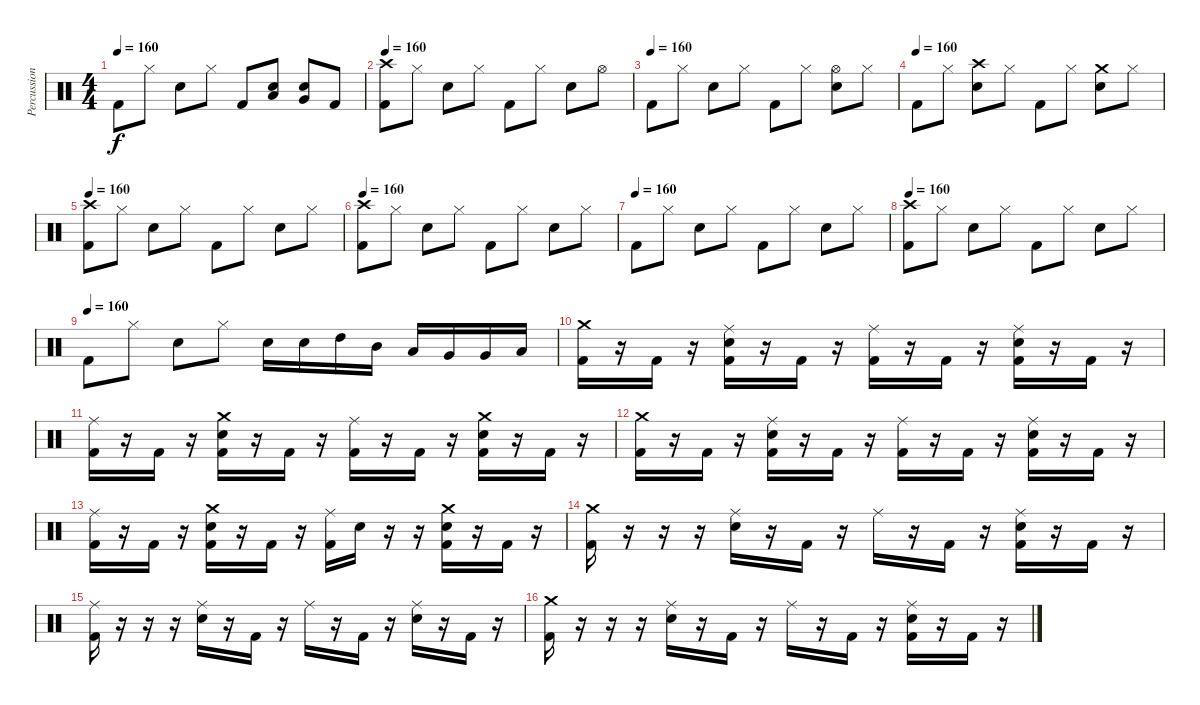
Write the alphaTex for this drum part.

\track ("Percussion" "Percussion") {instrument percussion}
\staff {score}
\articulation defaults
\ts (4 4)
\tempo 160
\clef neutral
\ks c "Kick (hit) 2".8{dy f} "Hi-Hat (closed)".8 "Snare (hit) 2".8 "Hi-Hat (closed)".8 "Kick (hit) 2".8
("Low Tom (hit)" "Snare (hit) 2").8 ("Very Low Tom (hit)" "Snare (hit) 2").8 "Kick (hit) 2".8 |
\tempo 160
("Crash high (hit)" "Kick (hit) 2").8 "Hi-Hat (closed)".8 "Snare (hit) 2".8 "Hi-Hat (closed)".8 "Kick (hit) 2".8 "Hi-Hat (closed)".8 "Snare (hit) 2".8 "Hi-Hat (open)".8 |
\tempo (160)
"Kick (hit) 2".8 "Hi-Hat (closed)".8 "Snare (hit) 2".8 "Hi-Hat (closed)".8 "Kick (hit) 2".8 "Hi-Hat (closed)".8 ("Hi-Hat (open)" "Snare (hit) 2").8 "Hi-Hat (closed)".8 |
\tempo (160)
"Kick (hit) 2".8 "Hi-Hat (closed)".8 ("Crash high (hit)" "Snare (hit) 2").8 "Hi-Hat (closed)".8 "Kick (hit) 2".8 "Hi-Hat (closed)".8 ("Crash medium (hit)" "Snare (hit) 2").8 "Hi-Hat (closed)".8 |
\tempo 160
("Crash high (hit)" "Kick (hit) 2").8 "Hi-Hat (closed)".8 "Snare (hit) 2".8 "Hi-Hat (closed)".8 "Kick (hit) 2".8 "Hi-Hat (closed)".8 "Snare (hit) 2".8 "Hi-Hat (closed)".8 |
\tempo 160
("Crash high (hit)" "Kick (hit) 2").8 "Hi-Hat (closed)".8 "Snare (hit) 2".8 "Hi-Hat (closed)".8 "Kick (hit) 2".8 "Hi-Hat (closed)".8 "Snare (hit) 2".8 "Hi-Hat (closed)".8 |
\tempo (160)
"Kick (hit) 2".8 "Hi-Hat (closed)".8 "Snare (hit) 2".8 "Hi-Hat (closed)".8 "Kick (hit) 2".8 "Hi-Hat (closed)".8 "Snare (hit) 2".8 "Hi-Hat (closed)".8 |
\tempo 160
("Crash high (hit)" "Kick (hit) 2").8 "Hi-Hat (closed)".8 "Snare (hit) 2".8 "Hi-Hat (closed)".8 "Kick (hit) 2".8 "Hi-Hat (closed)".8 "Snare (hit) 2".8 "Hi-Hat (closed)".8 |
\tempo (160)
"Kick (hit) 2".8 "Hi-Hat (closed)".8 "Snare (hit) 2".8 "Hi-Hat (closed)".8 "Snare (hit) 2".16 "Snare (hit) 2".16 "High Tom (hit)".16 "Mid Tom (hit)".16 "Low Tom (hit)".16 "Very Low Tom (hit)".16 "Very Low Tom (hit)".16 "Low Floor Tom (hit)".16 |
("Crash medium (hit)" "Kick (hit) 2").16 r.16 "Kick (hit) 2".16 r.16 ("Ride (middle)" "Snare (hit) 2" "Kick (hit) 2").16 r.16 "Kick (hit) 2".16 r.16 ("Ride (middle)" "Kick (hit) 2").16 r.16 "Kick (hit) 2".16 r.16 ("Ride (middle)" "Snare (hit) 2" "Kick (hit) 2").16 r.16 "Kick (hit) 2".16 r.16 |
("Ride (middle)" "Kick (hit) 2").16 r.16 "Kick (hit) 2".16 r.16 ("Crash medium (hit)" "Snare (hit) 2" "Kick (hit) 2").16 r.16 "Kick (hit) 2".16 r.16 ("Ride (middle)" "Kick (hit) 2").16 r.16 "Kick (hit) 2".16 r.16 ("Crash medium (hit)" "Snare (hit) 2" "Kick (hit) 2").16 r.16 "Kick (hit) 2".16 r.16 |
("Crash medium (hit)" "Kick (hit) 2").16 r.16 "Kick (hit) 2".16 r.16 ("Ride (middle)" "Snare (hit) 2" "Kick (hit) 2").16 r.16 "Kick (hit) 2".16 r.16 ("Ride (middle)" "Kick (hit) 2").16 r.16 "Kick (hit) 2".16 r.16 ("Ride (middle)" "Snare (hit) 2" "Kick (hit) 2").16 r.16 "Kick (hit) 2".16 r.16 |
("Ride (middle)" "Kick (hit) 2").16 r.16 "Kick (hit) 2".16 r.16 ("Crash medium (hit)" "Snare (hit) 2" "Kick (hit) 2").16 r.16 "Kick (hit) 2".16 r.16 ("Ride (middle)" "Kick (hit) 2").16 "Snare (hit) 2".16 r.16 r.16 ("Crash medium (hit)" "Snare (hit) 2" "Kick (hit) 2").16 r.16 "Kick (hit) 2".16 r.16 |
("Crash medium (hit)" "Kick (hit) 2").16 r.16 r.16 r.16 ("Ride (middle)" "Snare (hit) 2").16 r.16 "Kick (hit) 2".16 r.16 "Ride (middle)".16 r.16 "Kick (hit) 2".16 r.16 ("Ride (middle)" "Snare (hit) 2" "Kick (hit) 2").16 r.16 "Kick (hit) 2".16 r.16 |
("Ride (middle)" "Kick (hit) 2").16 r.16 r.16 r.16 ("Ride (middle)" "Snare (hit) 2").16 r.16 "Kick (hit) 2".16 r.16 "Ride (middle)".16 r.16 "Kick (hit) 2".16 r.16 ("Ride (middle)" "Snare (hit) 2").16 r.16 "Kick (hit) 2".16 r.16 |
("Crash medium (hit)" "Kick (hit) 2").16 r.16 r.16 r.16 ("Ride (middle)" "Snare (hit) 2").16 r.16 "Kick (hit) 2".16 r.16 "Ride (middle)".16 r.16 "Kick (hit) 2".16 r.16 ("Ride (middle)" "Snare (hit) 2" "Kick (hit) 2").16 r.16 "Kick (hit) 2".16 r.16
